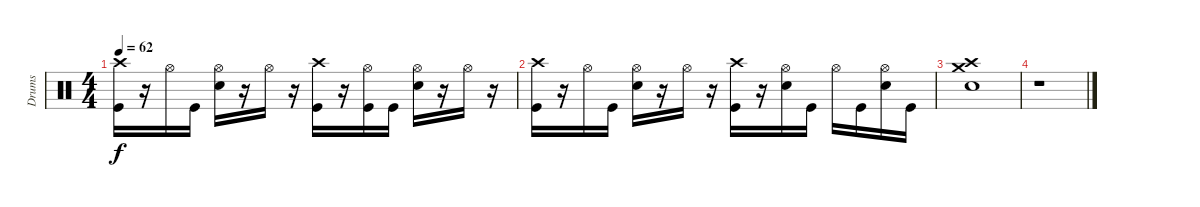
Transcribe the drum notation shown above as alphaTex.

\track ("Drums" "Drums") {instrument percussion}
\staff {score}
\articulation defaults
\ts (4 4)
\tempo 62
\clef neutral
\ks c
("Crash high (hit)" "Kick (hit)").16{dy f} r.16 "Hi-Hat (open)".16 "Kick (hit)".16 ("Hi-Hat (open)" "Snare (hit) 2").16 r.16 "Hi-Hat (open)".16 r.16 ("Crash high (hit)" "Kick (hit)").16 r.16 ("Hi-Hat (open)" "Kick (hit)").16 "Kick (hit)".16 ("Hi-Hat (open)" "Snare (hit) 2").16 r.16 "Hi-Hat (open)".16 r.16 |
("Crash high (hit)" "Kick (hit)").16 r.16 "Hi-Hat (open)".16 "Kick (hit)".16 ("Hi-Hat (open)" "Snare (hit) 2").16 r.16 "Hi-Hat (open)".16 r.16 ("Crash high (hit)" "Kick (hit)").16 r.16 ("Hi-Hat (open)" "Snare (hit) 2").16 "Kick (hit)".16 "Hi-Hat (open)".16 "Kick (hit)".16 ("Hi-Hat (open)" "Snare (hit) 2").16 "Kick (hit)".16 |
("Crash medium (hit)" "Crash high (hit)" "Snare (hit) 2").1 |
r.1
